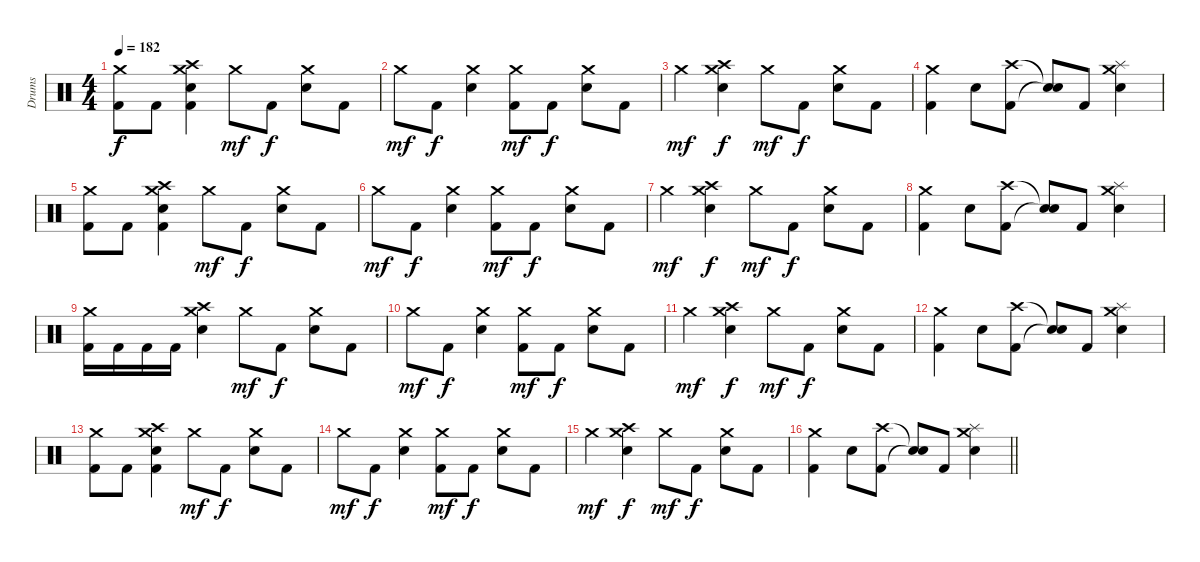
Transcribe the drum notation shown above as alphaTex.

\track ("Drums" "Drums") {instrument percussion}
\staff {score}
\articulation defaults
\ts (4 4)
\tempo 182
\clef neutral
\ks c
("Crash medium (hit)" "Kick (hit) 2").8{dy f} "Kick (hit) 2".8 ("Crash medium (hit)" "Crash high (hit)" "Electric Snare (hit)" "Kick (hit) 2").4 "Crash medium (hit)".8{dy mf} "Kick (hit) 2".8{dy f} ("Crash medium (hit)" "Electric Snare (hit)").8 "Kick (hit) 2".8 |
"Crash medium (hit)".8{dy mf} "Kick (hit) 2".8{dy f} ("Crash medium (hit)" "Electric Snare (hit)").4 ("Crash medium (hit)" "Kick (hit) 2").8{dy mf} "Kick (hit) 2".8{dy f} ("Crash medium (hit)" "Electric Snare (hit)").8 "Kick (hit) 2".8 |
"Crash medium (hit)".4{dy mf} ("Crash medium (hit)" "Crash high (hit)" "Electric Snare (hit)").4{dy f} "Crash medium (hit)".8{dy mf} "Kick (hit) 2".8{dy f} ("Crash medium (hit)" "Electric Snare (hit)").8 "Kick (hit) 2".8 |
("Crash medium (hit)" "Kick (hit) 2").4 "Electric Snare (hit)".8 ("Crash high (hit)" "Kick (hit) 2").8 ("Snare (hit)"{t} "Snare (hit)"{t}).8 "Kick (hit) 2".8 ("Crash medium (hit)" "Splash (hit)" "Electric Snare (hit)").4 |
("Crash medium (hit)" "Kick (hit) 2").8 "Kick (hit) 2".8 ("Crash medium (hit)" "Crash high (hit)" "Electric Snare (hit)" "Kick (hit) 2").4 "Crash medium (hit)".8{dy mf} "Kick (hit) 2".8{dy f} ("Crash medium (hit)" "Electric Snare (hit)").8 "Kick (hit) 2".8 |
"Crash medium (hit)".8{dy mf} "Kick (hit) 2".8{dy f} ("Crash medium (hit)" "Electric Snare (hit)").4 ("Crash medium (hit)" "Kick (hit) 2").8{dy mf} "Kick (hit) 2".8{dy f} ("Crash medium (hit)" "Electric Snare (hit)").8 "Kick (hit) 2".8 |
"Crash medium (hit)".4{dy mf} ("Crash medium (hit)" "Crash high (hit)" "Electric Snare (hit)").4{dy f} "Crash medium (hit)".8{dy mf} "Kick (hit) 2".8{dy f} ("Crash medium (hit)" "Electric Snare (hit)").8 "Kick (hit) 2".8 |
("Crash medium (hit)" "Kick (hit) 2").4 "Electric Snare (hit)".8 ("Crash high (hit)" "Kick (hit) 2").8 ("Snare (hit)"{t} "Snare (hit)"{t}).8 "Kick (hit) 2".8 ("Crash medium (hit)" "Splash (hit)" "Electric Snare (hit)").4 |
("Crash medium (hit)" "Kick (hit) 2").16 "Kick (hit) 2".16 "Kick (hit) 2".16 "Kick (hit) 2".16 ("Crash medium (hit)" "Crash high (hit)" "Electric Snare (hit)").4 "Crash medium (hit)".8{dy mf} "Kick (hit) 2".8{dy f} ("Crash medium (hit)" "Electric Snare (hit)").8 "Kick (hit) 2".8 |
"Crash medium (hit)".8{dy mf} "Kick (hit) 2".8{dy f} ("Crash medium (hit)" "Electric Snare (hit)").4 ("Crash medium (hit)" "Kick (hit) 2").8{dy mf} "Kick (hit) 2".8{dy f} ("Crash medium (hit)" "Electric Snare (hit)").8 "Kick (hit) 2".8 |
"Crash medium (hit)".4{dy mf} ("Crash medium (hit)" "Crash high (hit)" "Electric Snare (hit)").4{dy f} "Crash medium (hit)".8{dy mf} "Kick (hit) 2".8{dy f} ("Crash medium (hit)" "Electric Snare (hit)").8 "Kick (hit) 2".8 |
("Crash medium (hit)" "Kick (hit) 2").4 "Electric Snare (hit)".8 ("Crash high (hit)" "Kick (hit) 2").8 ("Snare (hit)"{t} "Snare (hit)"{t}).8 "Kick (hit) 2".8 ("Crash medium (hit)" "Splash (hit)" "Electric Snare (hit)").4 |
("Crash medium (hit)" "Kick (hit) 2").8 "Kick (hit) 2".8 ("Crash medium (hit)" "Crash high (hit)" "Electric Snare (hit)" "Kick (hit) 2").4 "Crash medium (hit)".8{dy mf} "Kick (hit) 2".8{dy f} ("Crash medium (hit)" "Electric Snare (hit)").8 "Kick (hit) 2".8 |
"Crash medium (hit)".8{dy mf} "Kick (hit) 2".8{dy f} ("Crash medium (hit)" "Electric Snare (hit)").4 ("Crash medium (hit)" "Kick (hit) 2").8{dy mf} "Kick (hit) 2".8{dy f} ("Crash medium (hit)" "Electric Snare (hit)").8 "Kick (hit) 2".8 |
"Crash medium (hit)".4{dy mf} ("Crash medium (hit)" "Crash high (hit)" "Electric Snare (hit)").4{dy f} "Crash medium (hit)".8{dy mf} "Kick (hit) 2".8{dy f} ("Crash medium (hit)" "Electric Snare (hit)").8 "Kick (hit) 2".8 |
\barLineRight lightlight
("Crash medium (hit)" "Kick (hit) 2").4 "Electric Snare (hit)".8 ("Crash high (hit)" "Kick (hit) 2").8 ("Snare (hit)"{t} "Snare (hit)"{t}).8 "Kick (hit) 2".8 ("Crash medium (hit)" "Splash (hit)" "Electric Snare (hit)").4
